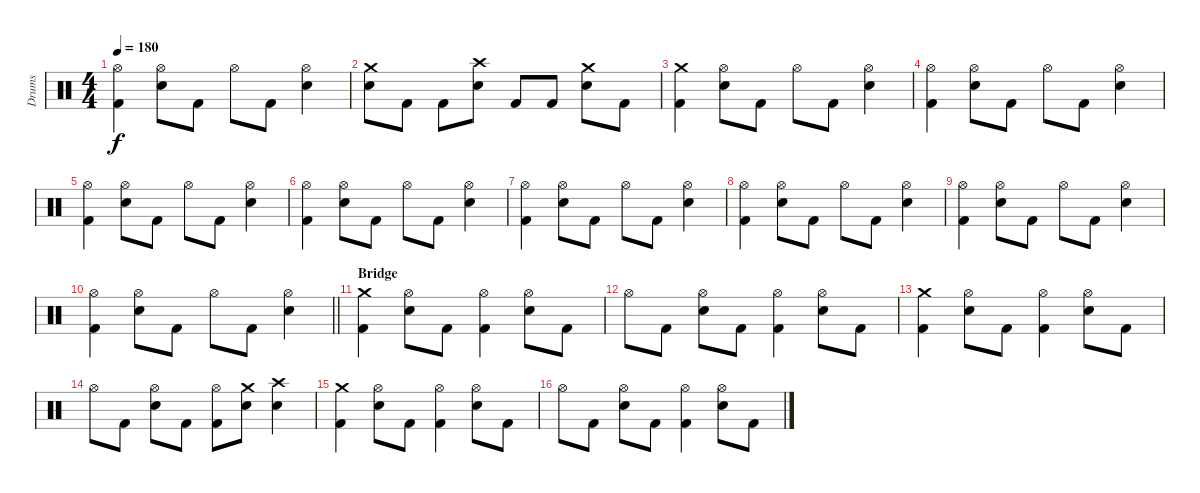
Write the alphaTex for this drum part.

\track ("Drums" "Drums") {instrument percussion}
\staff {score}
\articulation defaults
\ts (4 4)
\tempo 180
\clef neutral
\ks c
("Hi-Hat (open)" "Kick (hit) 2").4{dy f} ("Hi-Hat (open)" "Electric Snare (hit)").8 "Kick (hit) 2".8 "Hi-Hat (open)".8 "Kick (hit) 2".8 ("Hi-Hat (open)" "Electric Snare (hit)").4 |
("Crash medium (hit)" "Electric Snare (hit)").8 "Kick (hit) 2".8 "Kick (hit) 2".8 ("Crash high (hit)" "Electric Snare (hit)").8 "Kick (hit) 2".8 "Kick (hit) 2".8 ("Crash medium (hit)" "Electric Snare (hit)").8 "Kick (hit) 2".8 |
("Crash medium (hit)" "Kick (hit) 2").4 ("Hi-Hat (open)" "Electric Snare (hit)").8 "Kick (hit) 2".8 "Hi-Hat (open)".8 "Kick (hit) 2".8 ("Hi-Hat (open)" "Electric Snare (hit)").4 |
("Hi-Hat (open)" "Kick (hit) 2").4 ("Hi-Hat (open)" "Electric Snare (hit)").8 "Kick (hit) 2".8 "Hi-Hat (open)".8 "Kick (hit) 2".8 ("Hi-Hat (open)" "Electric Snare (hit)").4 |
("Hi-Hat (open)" "Kick (hit) 2").4 ("Hi-Hat (open)" "Electric Snare (hit)").8 "Kick (hit) 2".8 "Hi-Hat (open)".8 "Kick (hit) 2".8 ("Hi-Hat (open)" "Electric Snare (hit)").4 |
("Hi-Hat (open)" "Kick (hit) 2").4 ("Hi-Hat (open)" "Electric Snare (hit)").8 "Kick (hit) 2".8 "Hi-Hat (open)".8 "Kick (hit) 2".8 ("Hi-Hat (open)" "Electric Snare (hit)").4 |
("Hi-Hat (open)" "Kick (hit) 2").4 ("Hi-Hat (open)" "Electric Snare (hit)").8 "Kick (hit) 2".8 "Hi-Hat (open)".8 "Kick (hit) 2".8 ("Hi-Hat (open)" "Electric Snare (hit)").4 |
("Hi-Hat (open)" "Kick (hit) 2").4 ("Hi-Hat (open)" "Electric Snare (hit)").8 "Kick (hit) 2".8 "Hi-Hat (open)".8 "Kick (hit) 2".8 ("Hi-Hat (open)" "Electric Snare (hit)").4 |
("Hi-Hat (open)" "Kick (hit) 2").4 ("Hi-Hat (open)" "Electric Snare (hit)").8 "Kick (hit) 2".8 "Hi-Hat (open)".8 "Kick (hit) 2".8 ("Hi-Hat (open)" "Electric Snare (hit)").4 |
\barLineRight lightlight
("Hi-Hat (open)" "Kick (hit) 2").4 ("Hi-Hat (open)" "Electric Snare (hit)").8 "Kick (hit) 2".8 "Hi-Hat (open)".8 "Kick (hit) 2".8 ("Hi-Hat (open)" "Electric Snare (hit)").4 |
\section ("" "Bridge")
("Crash medium (hit)" "Kick (hit) 2").4 ("Hi-Hat (open)" "Electric Snare (hit)").8 "Kick (hit) 2".8 ("Hi-Hat (open)" "Kick (hit) 2").4 ("Hi-Hat (open)" "Electric Snare (hit)").8 "Kick (hit) 2".8 |
"Hi-Hat (open)".8 "Kick (hit) 2".8 ("Hi-Hat (open)" "Electric Snare (hit)").8 "Kick (hit) 2".8 ("Hi-Hat (open)" "Kick (hit) 2").4 ("Hi-Hat (open)" "Electric Snare (hit)").8 "Kick (hit) 2".8 |
("Crash medium (hit)" "Kick (hit) 2").4 ("Hi-Hat (open)" "Electric Snare (hit)").8 "Kick (hit) 2".8 ("Hi-Hat (open)" "Kick (hit) 2").4 ("Hi-Hat (open)" "Electric Snare (hit)").8 "Kick (hit) 2".8 |
"Hi-Hat (open)".8 "Kick (hit) 2".8 ("Hi-Hat (open)" "Electric Snare (hit)").8 "Kick (hit) 2".8 ("Hi-Hat (open)" "Kick (hit) 2").8 ("Crash medium (hit)" "Electric Snare (hit)").8 ("Crash high (hit)" "Electric Snare (hit)").4 |
("Crash medium (hit)" "Kick (hit) 2").4 ("Hi-Hat (open)" "Electric Snare (hit)").8 "Kick (hit) 2".8 ("Hi-Hat (open)" "Kick (hit) 2").4 ("Hi-Hat (open)" "Electric Snare (hit)").8 "Kick (hit) 2".8 |
"Hi-Hat (open)".8 "Kick (hit) 2".8 ("Hi-Hat (open)" "Electric Snare (hit)").8 "Kick (hit) 2".8 ("Hi-Hat (open)" "Kick (hit) 2").4 ("Hi-Hat (open)" "Electric Snare (hit)").8 "Kick (hit) 2".8
